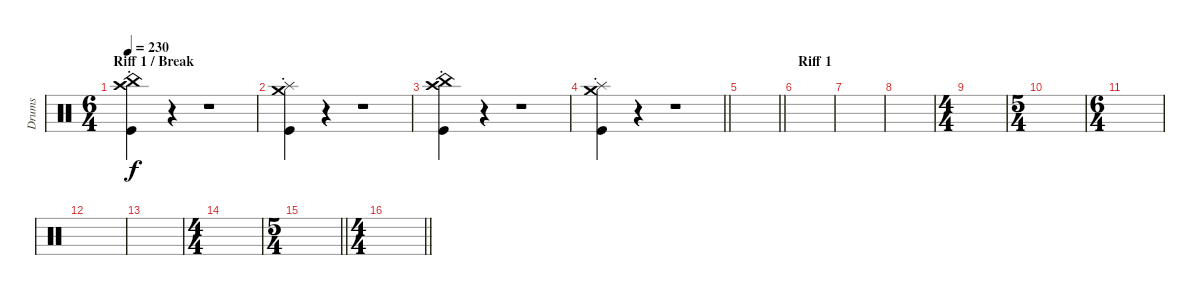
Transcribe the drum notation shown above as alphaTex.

\track ("Drums" "Drums") {instrument percussion}
\staff {score}
\articulation defaults
\ts (6 4)
\section ("" "Riff 1 / Break")
\tempo 230
\clef neutral
\ks c
("Crash high (hit)"{st} "China (hit)"{st} "Kick (hit)"{st}).4{dy f} r.4 r.1 |
("Crash medium (hit)"{st} "Splash (hit)"{st} "Kick (hit)"{st}).4 r.4 r.1 |
("Crash high (hit)"{st} "China (hit)"{st} "Kick (hit)"{st}).4 r.4 r.1 |
\barLineRight lightlight
("Crash medium (hit)"{st} "Splash (hit)"{st} "Kick (hit)"{st}).4 r.4 r.1 |
\section ("" "")
\barLineRight lightlight
|
\section ("" "Riff 1")
|
|
|
\ts (4 4)
|
\ts (5 4)
|
\ts (6 4)
|
|
|
\ts (4 4)
|
\ts (5 4)
\barLineRight lightlight
|
\ts (4 4)
\section ("" "")
\barLineRight lightlight
